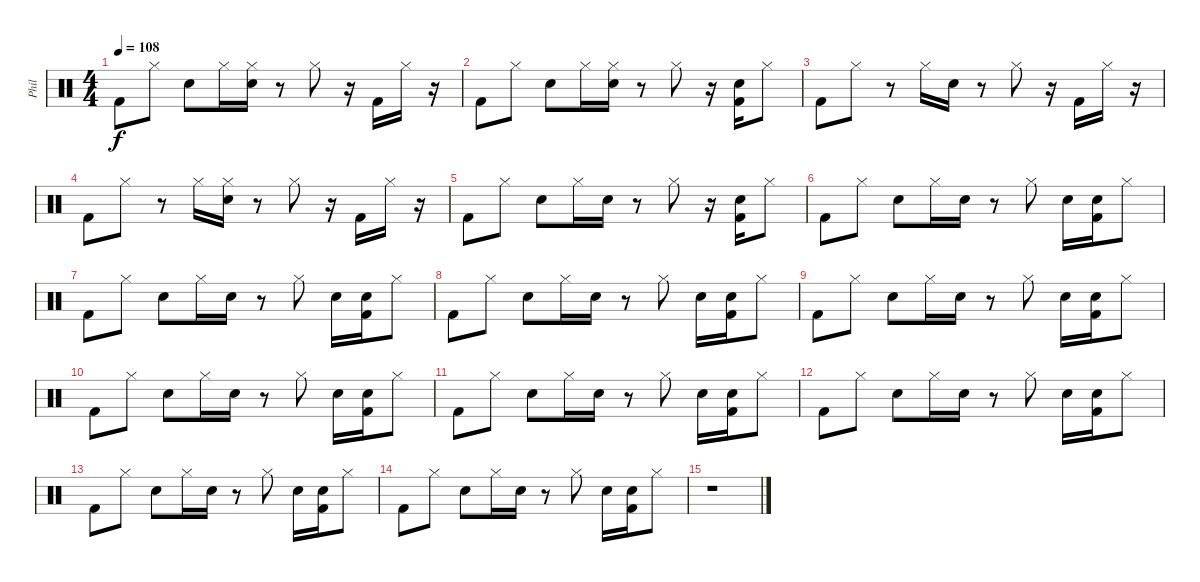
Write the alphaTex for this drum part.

\track ("Phil" "Phil") {instrument percussion}
\staff {score}
\articulation defaults
\ts (4 4)
\tempo 108
\clef neutral
\ks c "Kick (hit) 2".8{dy f} "Hi-Hat (closed)".8 "Electric Snare (hit)".8 "Hi-Hat (closed)".16
("Hi-Hat (closed)" "Electric Snare (hit)").16 r.8 "Hi-Hat (closed)".8 r.16 "Kick (hit) 2".16 "Hi-Hat (closed)".16 r.16 |
"Kick (hit) 2".8 "Hi-Hat (closed)".8 "Electric Snare (hit)".8 "Hi-Hat (closed)".16 ("Hi-Hat (closed)" "Electric Snare (hit)").16 r.8 "Hi-Hat (closed)".8 r.16 ("Electric Snare (hit)" "Kick (hit) 2").16 "Hi-Hat (closed)".8 |
"Kick (hit) 2".8 "Hi-Hat (closed)".8 r.8 "Hi-Hat (closed)".16 "Electric Snare (hit)".16 r.8 "Hi-Hat (closed)".8 r.16 "Kick (hit) 2".16 "Hi-Hat (closed)".16 r.16 |
"Kick (hit) 2".8 "Hi-Hat (closed)".8 r.8 "Hi-Hat (closed)".16 ("Hi-Hat (closed)" "Electric Snare (hit)").16 r.8 "Hi-Hat (closed)".8 r.16 "Kick (hit) 2".16 "Hi-Hat (closed)".16 r.16 |
"Kick (hit) 2".8 "Hi-Hat (closed)".8 "Electric Snare (hit)".8 "Hi-Hat (closed)".16 "Electric Snare (hit)".16 r.8 "Hi-Hat (closed)".8 r.16 ("Electric Snare (hit)" "Kick (hit) 2").16 "Hi-Hat (closed)".8 |
"Kick (hit) 2".8 "Hi-Hat (closed)".8 "Electric Snare (hit)".8 "Hi-Hat (closed)".16 "Electric Snare (hit)".16 r.8 "Hi-Hat (closed)".8 "Electric Snare (hit)".16 ("Electric Snare (hit)" "Kick (hit) 2").16 "Hi-Hat (closed)".8 |
"Kick (hit) 2".8 "Hi-Hat (closed)".8 "Electric Snare (hit)".8 "Hi-Hat (closed)".16 "Electric Snare (hit)".16 r.8 "Hi-Hat (closed)".8 "Electric Snare (hit)".16 ("Electric Snare (hit)" "Kick (hit) 2").16 "Hi-Hat (closed)".8 |
"Kick (hit) 2".8 "Hi-Hat (closed)".8 "Electric Snare (hit)".8 "Hi-Hat (closed)".16 "Electric Snare (hit)".16 r.8 "Hi-Hat (closed)".8 "Electric Snare (hit)".16 ("Electric Snare (hit)" "Kick (hit) 2").16 "Hi-Hat (closed)".8 |
"Kick (hit) 2".8 "Hi-Hat (closed)".8 "Electric Snare (hit)".8 "Hi-Hat (closed)".16 "Electric Snare (hit)".16 r.8 "Hi-Hat (closed)".8 "Electric Snare (hit)".16 ("Electric Snare (hit)" "Kick (hit) 2").16 "Hi-Hat (closed)".8 |
"Kick (hit) 2".8 "Hi-Hat (closed)".8 "Electric Snare (hit)".8 "Hi-Hat (closed)".16 "Electric Snare (hit)".16 r.8 "Hi-Hat (closed)".8 "Electric Snare (hit)".16 ("Electric Snare (hit)" "Kick (hit) 2").16 "Hi-Hat (closed)".8 |
"Kick (hit) 2".8 "Hi-Hat (closed)".8 "Electric Snare (hit)".8 "Hi-Hat (closed)".16 "Electric Snare (hit)".16 r.8 "Hi-Hat (closed)".8 "Electric Snare (hit)".16 ("Electric Snare (hit)" "Kick (hit) 2").16 "Hi-Hat (closed)".8 |
"Kick (hit) 2".8 "Hi-Hat (closed)".8 "Electric Snare (hit)".8 "Hi-Hat (closed)".16 "Electric Snare (hit)".16 r.8 "Hi-Hat (closed)".8 "Electric Snare (hit)".16 ("Electric Snare (hit)" "Kick (hit) 2").16 "Hi-Hat (closed)".8 |
"Kick (hit) 2".8 "Hi-Hat (closed)".8 "Electric Snare (hit)".8 "Hi-Hat (closed)".16 "Electric Snare (hit)".16 r.8 "Hi-Hat (closed)".8 "Electric Snare (hit)".16 ("Electric Snare (hit)" "Kick (hit) 2").16 "Hi-Hat (closed)".8 |
"Kick (hit) 2".8 "Hi-Hat (closed)".8 "Electric Snare (hit)".8 "Hi-Hat (closed)".16 "Electric Snare (hit)".16 r.8 "Hi-Hat (closed)".8 "Electric Snare (hit)".16 ("Electric Snare (hit)" "Kick (hit) 2").16 "Hi-Hat (closed)".8 |
r.1
